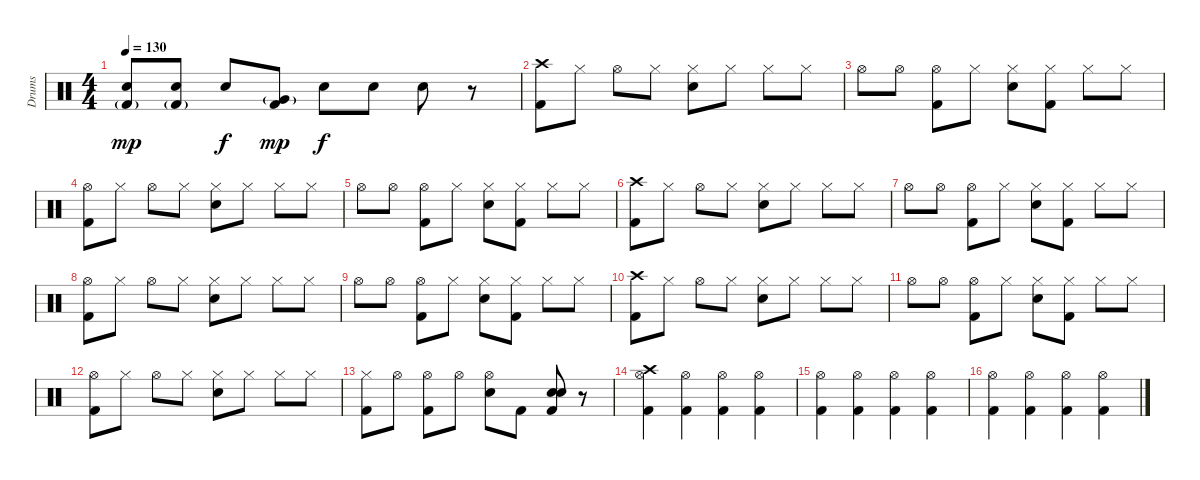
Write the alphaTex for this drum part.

\track ("Drums" "Drums") {instrument percussion}
\staff {score}
\articulation defaults
\ts (4 4)
\tempo 130
\clef neutral
\ks c
("Snare (hit) 2" "Kick (hit) 2"{g}).8{dy mp} ("Snare (hit) 2" "Kick (hit) 2"{g}).8 "Snare (hit) 2".8{dy f} ("Very Low Tom (hit)"{g} "Kick (hit) 2").8{dy mp} "Snare (hit) 2".8{dy f} "Snare (hit) 2".8 "Snare (hit) 2".8 r.8 |
("Crash high (hit)" "Kick (hit) 2").8 "Hi-Hat (closed)".8 "Hi-Hat (open)".8 "Hi-Hat (closed)".8 ("Hi-Hat (closed)" "Snare (hit) 2").8 "Hi-Hat (closed)".8 "Hi-Hat (closed)".8 "Hi-Hat (closed)".8 |
"Hi-Hat (open)".8 "Hi-Hat (open)".8 ("Hi-Hat (open)" "Kick (hit) 2").8 "Hi-Hat (closed)".8 ("Hi-Hat (closed)" "Snare (hit) 2").8 ("Hi-Hat (closed)" "Kick (hit) 2").8 "Hi-Hat (closed)".8 "Hi-Hat (closed)".8 |
("Hi-Hat (open)" "Kick (hit) 2").8 "Hi-Hat (closed)".8 "Hi-Hat (open)".8 "Hi-Hat (closed)".8 ("Hi-Hat (closed)" "Snare (hit) 2").8 "Hi-Hat (closed)".8 "Hi-Hat (closed)".8 "Hi-Hat (closed)".8 |
"Hi-Hat (open)".8 "Hi-Hat (open)".8 ("Hi-Hat (open)" "Kick (hit) 2").8 "Hi-Hat (closed)".8 ("Hi-Hat (closed)" "Snare (hit) 2").8 ("Hi-Hat (closed)" "Kick (hit) 2").8 "Hi-Hat (closed)".8 "Hi-Hat (closed)".8 |
("Crash high (hit)" "Kick (hit) 2").8 "Hi-Hat (closed)".8 "Hi-Hat (open)".8 "Hi-Hat (closed)".8 ("Hi-Hat (closed)" "Snare (hit) 2").8 "Hi-Hat (closed)".8 "Hi-Hat (closed)".8 "Hi-Hat (closed)".8 |
"Hi-Hat (open)".8 "Hi-Hat (open)".8 ("Hi-Hat (open)" "Kick (hit) 2").8 "Hi-Hat (closed)".8 ("Hi-Hat (closed)" "Snare (hit) 2").8 ("Hi-Hat (closed)" "Kick (hit) 2").8 "Hi-Hat (closed)".8 "Hi-Hat (closed)".8 |
("Hi-Hat (open)" "Kick (hit) 2").8 "Hi-Hat (closed)".8 "Hi-Hat (open)".8 "Hi-Hat (closed)".8 ("Hi-Hat (closed)" "Snare (hit) 2").8 "Hi-Hat (closed)".8 "Hi-Hat (closed)".8 "Hi-Hat (closed)".8 |
"Hi-Hat (open)".8 "Hi-Hat (open)".8 ("Hi-Hat (open)" "Kick (hit) 2").8 "Hi-Hat (closed)".8 ("Hi-Hat (closed)" "Snare (hit) 2").8 ("Hi-Hat (closed)" "Kick (hit) 2").8 "Hi-Hat (closed)".8 "Hi-Hat (closed)".8 |
("Crash high (hit)" "Kick (hit) 2").8 "Hi-Hat (closed)".8 "Hi-Hat (open)".8 "Hi-Hat (closed)".8 ("Hi-Hat (closed)" "Snare (hit) 2").8 "Hi-Hat (closed)".8 "Hi-Hat (closed)".8 "Hi-Hat (closed)".8 |
"Hi-Hat (open)".8 "Hi-Hat (open)".8 ("Hi-Hat (open)" "Kick (hit) 2").8 "Hi-Hat (closed)".8 ("Hi-Hat (closed)" "Snare (hit) 2").8 ("Hi-Hat (closed)" "Kick (hit) 2").8 "Hi-Hat (closed)".8 "Hi-Hat (closed)".8 |
("Hi-Hat (open)" "Kick (hit) 2").8 "Hi-Hat (closed)".8 "Hi-Hat (open)".8 "Hi-Hat (closed)".8 ("Hi-Hat (closed)" "Snare (hit) 2").8 "Hi-Hat (closed)".8 "Hi-Hat (closed)".8 "Hi-Hat (closed)".8 |
("Hi-Hat (closed)" "Kick (hit) 2").8 "Hi-Hat (open)".8 ("Hi-Hat (open)" "Kick (hit) 2").8 "Hi-Hat (open)".8 ("Hi-Hat (open)" "Snare (hit) 2").8 "Kick (hit) 2".8 ("Snare (hit) 2" "Snare (hit) 2" "Kick (hit) 2").8 r.8 |
("Hi-Hat (open)" "Kick (hit) 2" "Crash high (hit)").4 ("Hi-Hat (open)" "Kick (hit) 2").4 ("Hi-Hat (open)" "Kick (hit) 2").4 ("Hi-Hat (open)" "Kick (hit) 2").4 |
("Hi-Hat (open)" "Kick (hit) 2").4 ("Hi-Hat (open)" "Kick (hit) 2").4 ("Hi-Hat (open)" "Kick (hit) 2").4 ("Hi-Hat (open)" "Kick (hit) 2").4 |
("Hi-Hat (open)" "Kick (hit) 2").4 ("Hi-Hat (open)" "Kick (hit) 2").4 ("Hi-Hat (open)" "Kick (hit) 2").4 ("Hi-Hat (open)" "Kick (hit) 2").4
